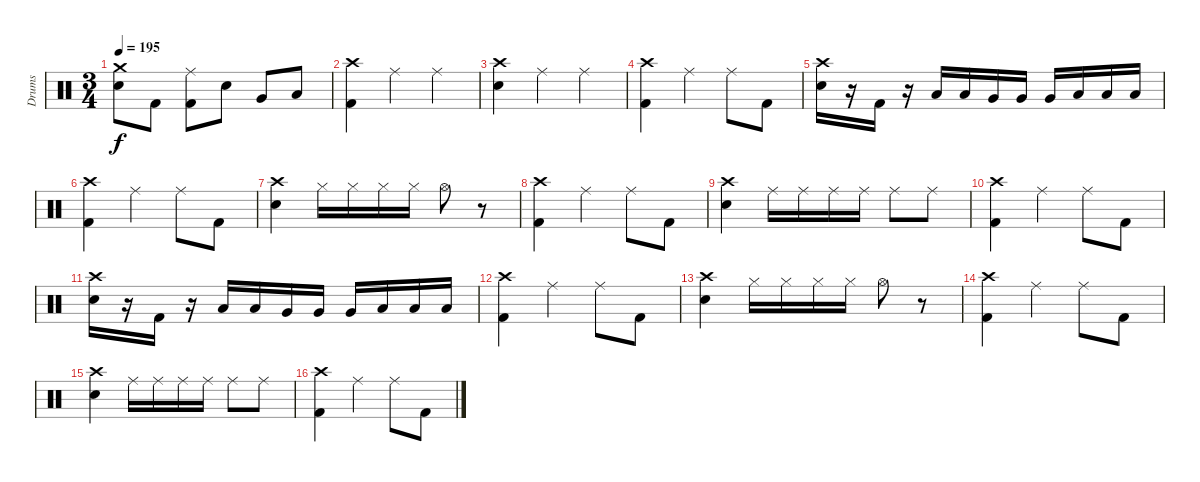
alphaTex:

\track ("Drums" "Drums") {instrument percussion}
\staff {score}
\articulation defaults
\ts (3 4)
\tempo 195
\clef neutral
\ks c
("Crash medium (hit)" "Electric Snare (hit)").8{dy f} "Kick (hit) 2".8 ("Ride (middle)" "Kick (hit) 2").8 "Electric Snare (hit)".8 "Very Low Tom (hit)".8 "Low Floor Tom (hit)".8 |
("Crash high (hit)" "Kick (hit) 2").4 "Ride (middle)".4 "Ride (middle)".4 |
("Crash high (hit)" "Electric Snare (hit)").4 "Ride (middle)".4 "Ride (middle)".4 |
("Crash high (hit)" "Kick (hit) 2").4 "Ride (middle)".4 "Ride (middle)".8 "Kick (hit) 2".8 |
("Crash high (hit)" "Electric Snare (hit)").16 r.16 "Kick (hit) 2".16 r.16 "Low Tom (hit)".16 "Low Tom (hit)".16 "Very Low Tom (hit)".16 "Very Low Tom (hit)".16 "Very Low Tom (hit)".16 "Low Floor Tom (hit)".16 "Low Floor Tom (hit)".16 "Low Floor Tom (hit)".16 |
("Crash high (hit)" "Kick (hit) 2").4 "Ride (middle)".4 "Ride (middle)".8 "Kick (hit) 2".8 |
("Crash high (hit)" "Electric Snare (hit)").4 "Hi-Hat (closed)".16 "Hi-Hat (closed)".16 "Hi-Hat (closed)".16 "Hi-Hat (closed)".16 "Hi-Hat (open)".8 r.8 |
("Crash high (hit)" "Kick (hit) 2").4 "Ride (middle)".4 "Ride (middle)".8 "Kick (hit) 2".8 |
("Crash high (hit)" "Electric Snare (hit)").4 "Ride (middle)".16 "Ride (middle)".16 "Ride (middle)".16 "Ride (middle)".16 "Ride (middle)".8 "Ride (middle)".8 |
("Crash high (hit)" "Kick (hit) 2").4 "Ride (middle)".4 "Ride (middle)".8 "Kick (hit) 2".8 |
("Crash high (hit)" "Electric Snare (hit)").16 r.16 "Kick (hit) 2".16 r.16 "Low Tom (hit)".16 "Low Tom (hit)".16 "Very Low Tom (hit)".16 "Very Low Tom (hit)".16 "Very Low Tom (hit)".16 "Low Floor Tom (hit)".16 "Low Floor Tom (hit)".16 "Low Floor Tom (hit)".16 |
("Crash high (hit)" "Kick (hit) 2").4 "Ride (middle)".4 "Ride (middle)".8 "Kick (hit) 2".8 |
("Crash high (hit)" "Electric Snare (hit)").4 "Hi-Hat (closed)".16 "Hi-Hat (closed)".16 "Hi-Hat (closed)".16 "Hi-Hat (closed)".16 "Hi-Hat (open)".8 r.8 |
("Crash high (hit)" "Kick (hit) 2").4 "Ride (middle)".4 "Ride (middle)".8 "Kick (hit) 2".8 |
("Crash high (hit)" "Electric Snare (hit)").4 "Ride (middle)".16 "Ride (middle)".16 "Ride (middle)".16 "Ride (middle)".16 "Ride (middle)".8 "Ride (middle)".8 |
("Crash high (hit)" "Kick (hit) 2").4 "Ride (middle)".4 "Ride (middle)".8 "Kick (hit) 2".8
